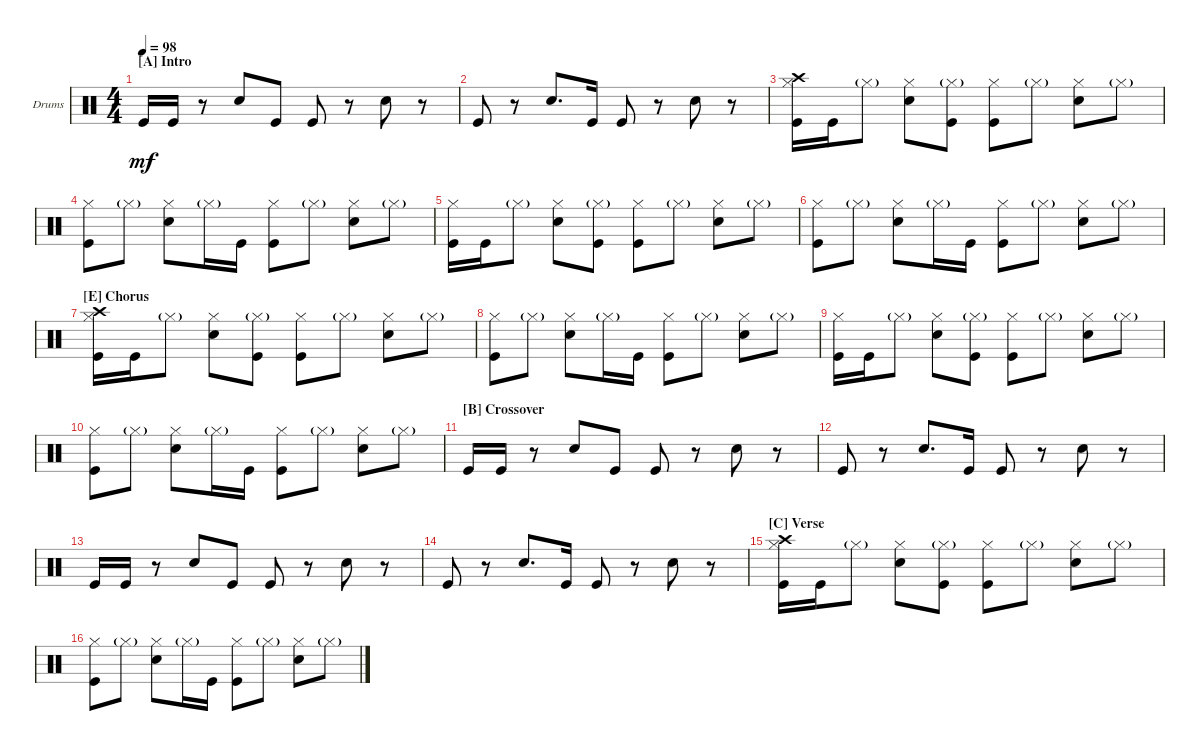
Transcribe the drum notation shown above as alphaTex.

\defaultSystemsLayout 4
\bracketExtendMode groupsimilarinstruments
\firstSystemTrackNameOrientation horizontal
\otherSystemsTrackNameOrientation horizontal
\track ("Drumkit" "Drums") {instrument percussion}
\staff {score}
\articulation defaults
\ts (4 4)
\section ("A" "Intro")
\tempo 98
\clef neutral
\ks c "Kick (hit)".16{dy mf} "Kick (hit)".16
r.8 "Snare (hit) 2".8 "Kick (hit)".8 "Kick (hit)".8 r.8 "Snare (hit) 2".8 r.8 |
"Kick (hit)".8 r.8 "Snare (hit) 2".8{d} "Kick (hit)".16 "Kick (hit)".8 r.8 "Snare (hit) 2".8 r.8 |
("Kick (hit)" "Hi-Hat (closed)" "Crash high (hit)").16 "Kick (hit)".16 "Hi-Hat (closed)"{g}.8 ("Snare (hit) 2" "Hi-Hat (closed)").8 ("Kick (hit)" "Hi-Hat (closed)"{g}).8 ("Kick (hit)" "Hi-Hat (closed)").8 "Hi-Hat (closed)"{g}.8 ("Snare (hit) 2" "Hi-Hat (closed)").8 "Hi-Hat (closed)"{g}.8 |
("Kick (hit)" "Hi-Hat (closed)").8 "Hi-Hat (closed)"{g}.8 ("Snare (hit) 2" "Hi-Hat (closed)").8 "Hi-Hat (closed)"{g}.16 "Kick (hit)".16 ("Kick (hit)" "Hi-Hat (closed)").8 "Hi-Hat (closed)"{g}.8 ("Snare (hit) 2" "Hi-Hat (closed)").8 "Hi-Hat (closed)"{g}.8 |
("Kick (hit)" "Hi-Hat (closed)").16 "Kick (hit)".16 "Hi-Hat (closed)"{g}.8 ("Snare (hit) 2" "Hi-Hat (closed)").8 ("Kick (hit)" "Hi-Hat (closed)"{g}).8 ("Kick (hit)" "Hi-Hat (closed)").8 "Hi-Hat (closed)"{g}.8 ("Snare (hit) 2" "Hi-Hat (closed)").8 "Hi-Hat (closed)"{g}.8 |
("Kick (hit)" "Hi-Hat (closed)").8 "Hi-Hat (closed)"{g}.8 ("Snare (hit) 2" "Hi-Hat (closed)").8 "Hi-Hat (closed)"{g}.16 "Kick (hit)".16 ("Kick (hit)" "Hi-Hat (closed)").8 "Hi-Hat (closed)"{g}.8 ("Snare (hit) 2" "Hi-Hat (closed)").8 "Hi-Hat (closed)"{g}.8 |
\section ("E" "Chorus")
("Kick (hit)" "Hi-Hat (closed)" "Crash high (hit)").16 "Kick (hit)".16 "Hi-Hat (closed)"{g}.8 ("Snare (hit) 2" "Hi-Hat (closed)").8 ("Kick (hit)" "Hi-Hat (closed)"{g}).8 ("Kick (hit)" "Hi-Hat (closed)").8 "Hi-Hat (closed)"{g}.8 ("Snare (hit) 2" "Hi-Hat (closed)").8 "Hi-Hat (closed)"{g}.8 |
("Kick (hit)" "Hi-Hat (closed)").8 "Hi-Hat (closed)"{g}.8 ("Snare (hit) 2" "Hi-Hat (closed)").8 "Hi-Hat (closed)"{g}.16 "Kick (hit)".16 ("Kick (hit)" "Hi-Hat (closed)").8 "Hi-Hat (closed)"{g}.8 ("Snare (hit) 2" "Hi-Hat (closed)").8 "Hi-Hat (closed)"{g}.8 |
("Kick (hit)" "Hi-Hat (closed)").16 "Kick (hit)".16 "Hi-Hat (closed)"{g}.8 ("Snare (hit) 2" "Hi-Hat (closed)").8 ("Kick (hit)" "Hi-Hat (closed)"{g}).8 ("Kick (hit)" "Hi-Hat (closed)").8 "Hi-Hat (closed)"{g}.8 ("Snare (hit) 2" "Hi-Hat (closed)").8 "Hi-Hat (closed)"{g}.8 |
("Kick (hit)" "Hi-Hat (closed)").8 "Hi-Hat (closed)"{g}.8 ("Snare (hit) 2" "Hi-Hat (closed)").8 "Hi-Hat (closed)"{g}.16 "Kick (hit)".16 ("Kick (hit)" "Hi-Hat (closed)").8 "Hi-Hat (closed)"{g}.8 ("Snare (hit) 2" "Hi-Hat (closed)").8 "Hi-Hat (closed)"{g}.8 |
\section ("B" "Crossover")
"Kick (hit)".16 "Kick (hit)".16 r.8 "Snare (hit) 2".8 "Kick (hit)".8 "Kick (hit)".8 r.8 "Snare (hit) 2".8 r.8 |
"Kick (hit)".8 r.8 "Snare (hit) 2".8{d} "Kick (hit)".16 "Kick (hit)".8 r.8 "Snare (hit) 2".8 r.8 |
"Kick (hit)".16 "Kick (hit)".16 r.8 "Snare (hit) 2".8 "Kick (hit)".8 "Kick (hit)".8 r.8 "Snare (hit) 2".8 r.8 |
"Kick (hit)".8 r.8 "Snare (hit) 2".8{d} "Kick (hit)".16 "Kick (hit)".8 r.8 "Snare (hit) 2".8 r.8 |
\section ("C" "Verse")
("Kick (hit)" "Hi-Hat (closed)" "Crash high (hit)").16 "Kick (hit)".16 "Hi-Hat (closed)"{g}.8 ("Snare (hit) 2" "Hi-Hat (closed)").8 ("Kick (hit)" "Hi-Hat (closed)"{g}).8 ("Kick (hit)" "Hi-Hat (closed)").8 "Hi-Hat (closed)"{g}.8 ("Snare (hit) 2" "Hi-Hat (closed)").8 "Hi-Hat (closed)"{g}.8 |
("Kick (hit)" "Hi-Hat (closed)").8 "Hi-Hat (closed)"{g}.8 ("Snare (hit) 2" "Hi-Hat (closed)").8 "Hi-Hat (closed)"{g}.16 "Kick (hit)".16 ("Kick (hit)" "Hi-Hat (closed)").8 "Hi-Hat (closed)"{g}.8 ("Snare (hit) 2" "Hi-Hat (closed)").8 "Hi-Hat (closed)"{g}.8
